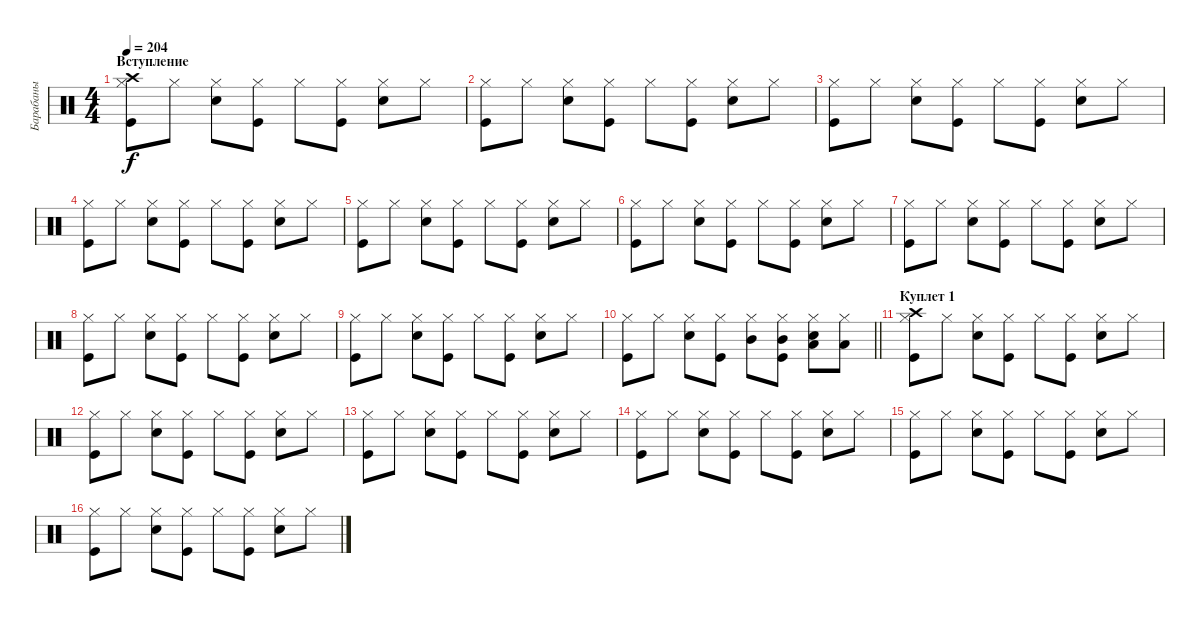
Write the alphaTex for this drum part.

\track ("Барабаны" "Барабаны") {instrument percussion}
\staff {score}
\articulation defaults
\ts (4 4)
\section ("" "Вступление")
\tempo 204
\clef neutral
\ks c
("Kick (hit)" "Hi-Hat (closed)" "Crash high (hit)").8{dy f} "Hi-Hat (closed)".8 ("Snare (hit) 2" "Hi-Hat (closed)").8 ("Kick (hit)" "Hi-Hat (closed)").8 "Hi-Hat (closed)".8 ("Kick (hit)" "Hi-Hat (closed)").8 ("Snare (hit) 2" "Hi-Hat (closed)").8 "Hi-Hat (closed)".8 |
("Kick (hit)" "Hi-Hat (closed)").8 "Hi-Hat (closed)".8 ("Snare (hit) 2" "Hi-Hat (closed)").8 ("Kick (hit)" "Hi-Hat (closed)").8 "Hi-Hat (closed)".8 ("Kick (hit)" "Hi-Hat (closed)").8 ("Snare (hit) 2" "Hi-Hat (closed)").8 "Hi-Hat (closed)".8 |
("Kick (hit)" "Hi-Hat (closed)").8 "Hi-Hat (closed)".8 ("Snare (hit) 2" "Hi-Hat (closed)").8 ("Kick (hit)" "Hi-Hat (closed)").8 "Hi-Hat (closed)".8 ("Kick (hit)" "Hi-Hat (closed)").8 ("Snare (hit) 2" "Hi-Hat (closed)").8 "Hi-Hat (closed)".8 |
("Kick (hit)" "Hi-Hat (closed)").8 "Hi-Hat (closed)".8 ("Snare (hit) 2" "Hi-Hat (closed)").8 ("Kick (hit)" "Hi-Hat (closed)").8 "Hi-Hat (closed)".8 ("Kick (hit)" "Hi-Hat (closed)").8 ("Snare (hit) 2" "Hi-Hat (closed)").8 "Hi-Hat (closed)".8 |
("Kick (hit)" "Hi-Hat (closed)").8 "Hi-Hat (closed)".8 ("Snare (hit) 2" "Hi-Hat (closed)").8 ("Kick (hit)" "Hi-Hat (closed)").8 "Hi-Hat (closed)".8 ("Kick (hit)" "Hi-Hat (closed)").8 ("Snare (hit) 2" "Hi-Hat (closed)").8 "Hi-Hat (closed)".8 |
("Kick (hit)" "Hi-Hat (closed)").8 "Hi-Hat (closed)".8 ("Snare (hit) 2" "Hi-Hat (closed)").8 ("Kick (hit)" "Hi-Hat (closed)").8 "Hi-Hat (closed)".8 ("Kick (hit)" "Hi-Hat (closed)").8 ("Snare (hit) 2" "Hi-Hat (closed)").8 "Hi-Hat (closed)".8 |
("Kick (hit)" "Hi-Hat (closed)").8 "Hi-Hat (closed)".8 ("Snare (hit) 2" "Hi-Hat (closed)").8 ("Kick (hit)" "Hi-Hat (closed)").8 "Hi-Hat (closed)".8 ("Kick (hit)" "Hi-Hat (closed)").8 ("Snare (hit) 2" "Hi-Hat (closed)").8 "Hi-Hat (closed)".8 |
("Kick (hit)" "Hi-Hat (closed)").8 "Hi-Hat (closed)".8 ("Snare (hit) 2" "Hi-Hat (closed)").8 ("Kick (hit)" "Hi-Hat (closed)").8 "Hi-Hat (closed)".8 ("Kick (hit)" "Hi-Hat (closed)").8 ("Snare (hit) 2" "Hi-Hat (closed)").8 "Hi-Hat (closed)".8 |
("Kick (hit)" "Hi-Hat (closed)").8 "Hi-Hat (closed)".8 ("Snare (hit) 2" "Hi-Hat (closed)").8 ("Kick (hit)" "Hi-Hat (closed)").8 "Hi-Hat (closed)".8 ("Kick (hit)" "Hi-Hat (closed)").8 ("Snare (hit) 2" "Hi-Hat (closed)").8 "Hi-Hat (closed)".8 |
\barLineRight lightlight
("Kick (hit)" "Hi-Hat (closed)").8 "Hi-Hat (closed)".8 ("Snare (hit) 2" "Hi-Hat (closed)").8 ("Kick (hit)" "Hi-Hat (closed)").8 ("Hi-Hat (closed)" "Mid Tom (hit)").8 ("Kick (hit)" "Hi-Hat (closed)" "Mid Tom (hit)").8 ("Snare (hit) 2" "Hi-Hat (closed)" "Low Tom (hit)").8 ("Hi-Hat (closed)" "Low Tom (hit)").8 |
\section ("" "Куплет 1")
("Kick (hit)" "Hi-Hat (closed)" "Crash high (hit)").8 "Hi-Hat (closed)".8 ("Snare (hit) 2" "Hi-Hat (closed)").8 ("Kick (hit)" "Hi-Hat (closed)").8 "Hi-Hat (closed)".8 ("Kick (hit)" "Hi-Hat (closed)").8 ("Snare (hit) 2" "Hi-Hat (closed)").8 "Hi-Hat (closed)".8 |
("Kick (hit)" "Hi-Hat (closed)").8 "Hi-Hat (closed)".8 ("Snare (hit) 2" "Hi-Hat (closed)").8 ("Kick (hit)" "Hi-Hat (closed)").8 "Hi-Hat (closed)".8 ("Kick (hit)" "Hi-Hat (closed)").8 ("Snare (hit) 2" "Hi-Hat (closed)").8 "Hi-Hat (closed)".8 |
("Kick (hit)" "Hi-Hat (closed)").8 "Hi-Hat (closed)".8 ("Snare (hit) 2" "Hi-Hat (closed)").8 ("Kick (hit)" "Hi-Hat (closed)").8 "Hi-Hat (closed)".8 ("Kick (hit)" "Hi-Hat (closed)").8 ("Snare (hit) 2" "Hi-Hat (closed)").8 "Hi-Hat (closed)".8 |
("Kick (hit)" "Hi-Hat (closed)").8 "Hi-Hat (closed)".8 ("Snare (hit) 2" "Hi-Hat (closed)").8 ("Kick (hit)" "Hi-Hat (closed)").8 "Hi-Hat (closed)".8 ("Kick (hit)" "Hi-Hat (closed)").8 ("Snare (hit) 2" "Hi-Hat (closed)").8 "Hi-Hat (closed)".8 |
("Kick (hit)" "Hi-Hat (closed)").8 "Hi-Hat (closed)".8 ("Snare (hit) 2" "Hi-Hat (closed)").8 ("Kick (hit)" "Hi-Hat (closed)").8 "Hi-Hat (closed)".8 ("Kick (hit)" "Hi-Hat (closed)").8 ("Snare (hit) 2" "Hi-Hat (closed)").8 "Hi-Hat (closed)".8 |
("Kick (hit)" "Hi-Hat (closed)").8 "Hi-Hat (closed)".8 ("Snare (hit) 2" "Hi-Hat (closed)").8 ("Kick (hit)" "Hi-Hat (closed)").8 "Hi-Hat (closed)".8 ("Kick (hit)" "Hi-Hat (closed)").8 ("Snare (hit) 2" "Hi-Hat (closed)").8 "Hi-Hat (closed)".8
